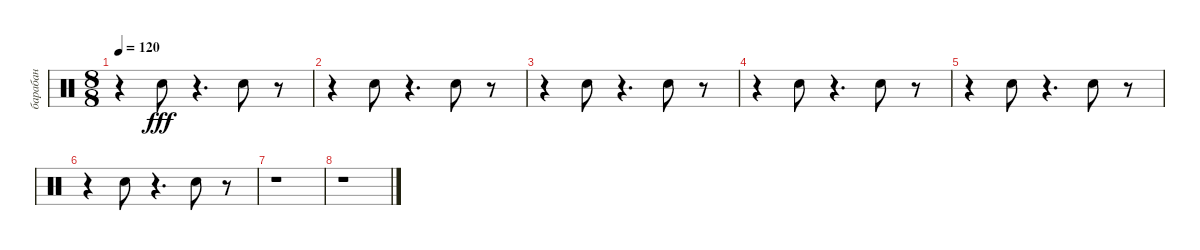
\track ("барабан" "барабан") {instrument percussion}
\staff {score}
\articulation defaults
\ts (8 8)
\tempo 120
\clef neutral
\ks c
r.4{dy fff} "Snare (hit) 2".8 r.4{d} "Snare (hit) 2".8 r.8 |
r.4 "Snare (hit) 2".8 r.4{d} "Snare (hit) 2".8 r.8 |
r.4 "Snare (hit) 2".8 r.4{d} "Snare (hit) 2".8 r.8 |
r.4 "Snare (hit) 2".8 r.4{d} "Snare (hit) 2".8 r.8 |
r.4 "Snare (hit) 2".8 r.4{d} "Snare (hit) 2".8 r.8 |
r.4 "Snare (hit) 2".8 r.4{d} "Snare (hit) 2".8 r.8 |
r.1 |
r.1
